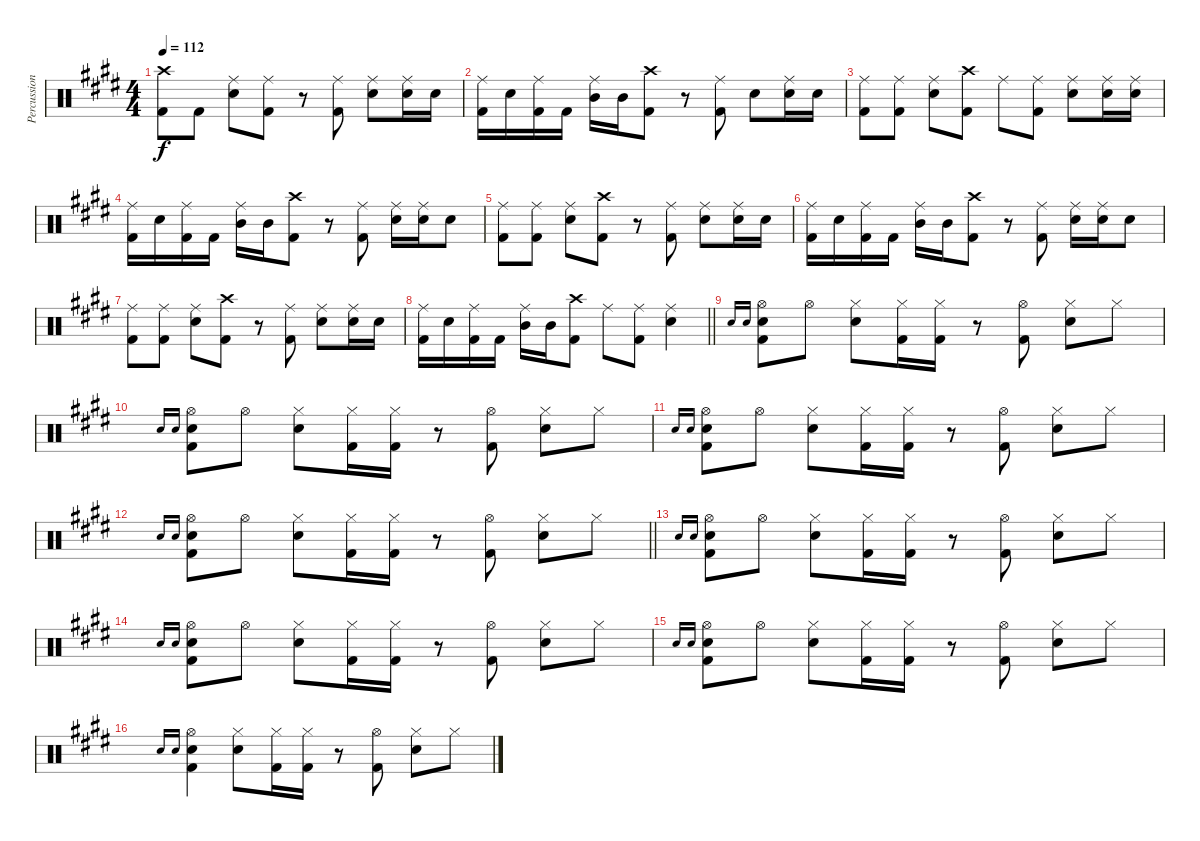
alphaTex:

\track ("Percussion" "Percussion") {instrument percussion}
\staff {score}
\articulation defaults
\ts (4 4)
\tempo 112
\clef neutral
\ks e
("Crash high (hit)" "Kick (hit) 2").8{dy f} "Kick (hit) 2".8 ("Ride (middle)" "Snare (hit) 2").8 ("Ride (middle)" "Kick (hit) 2").8 r.8 ("Ride (middle)" "Kick (hit) 2").8 ("Ride (middle)" "Snare (hit) 2").8 ("Ride (middle)" "Snare (hit) 2").16 "Snare (hit) 2".16 |
("Ride (middle)" "Kick (hit) 2").16 "Snare (hit) 2".16 ("Ride (middle)" "Kick (hit) 2").16 "Kick (hit) 2".16 ("Ride (middle)" "Mid Tom (hit)").16 "Mid Tom (hit)".16 ("Crash high (hit)" "Kick (hit) 2").8 r.8 ("Ride (middle)" "Kick (hit) 2").8 "Snare (hit) 2".8 ("Ride (middle)" "Snare (hit) 2").16 "Snare (hit) 2".16 |
("Ride (middle)" "Kick (hit) 2").8 ("Ride (middle)" "Kick (hit) 2").8 ("Ride (middle)" "Snare (hit) 2").8 ("Crash high (hit)" "Kick (hit) 2").8 "Ride (middle)".8 ("Ride (middle)" "Kick (hit) 2").8 ("Ride (middle)" "Snare (hit) 2").8 ("Ride (middle)" "Snare (hit) 2").16 ("Ride (middle)" "Snare (hit) 2").16 |
("Ride (middle)" "Kick (hit) 2").16 "Snare (hit) 2".16 ("Ride (middle)" "Kick (hit) 2").16 "Kick (hit) 2".16 ("Ride (middle)" "Mid Tom (hit)").16 "Mid Tom (hit)".16 ("Crash high (hit)" "Kick (hit) 2").8 r.8 ("Ride (middle)" "Kick (hit) 2").8 ("Ride (middle)" "Snare (hit) 2").16 ("Ride (middle)" "Snare (hit) 2").16 "Snare (hit) 2".8 |
("Ride (middle)" "Kick (hit) 2").8 ("Ride (middle)" "Kick (hit) 2").8 ("Ride (middle)" "Snare (hit) 2").8 ("Crash high (hit)" "Kick (hit) 2").8 r.8 ("Ride (middle)" "Kick (hit) 2").8 ("Ride (middle)" "Snare (hit) 2").8 ("Ride (middle)" "Snare (hit) 2").16 "Snare (hit) 2".16 |
("Ride (middle)" "Kick (hit) 2").16 "Snare (hit) 2".16 ("Ride (middle)" "Kick (hit) 2").16 "Kick (hit) 2".16 ("Ride (middle)" "Mid Tom (hit)").16 "Mid Tom (hit)".16 ("Crash high (hit)" "Kick (hit) 2").8 r.8 ("Ride (middle)" "Kick (hit) 2").8 ("Ride (middle)" "Snare (hit) 2").16 ("Ride (middle)" "Snare (hit) 2").16 "Snare (hit) 2".8 |
("Ride (middle)" "Kick (hit) 2").8 ("Ride (middle)" "Kick (hit) 2").8 ("Ride (middle)" "Snare (hit) 2").8 ("Crash high (hit)" "Kick (hit) 2").8 r.8 ("Ride (middle)" "Kick (hit) 2").8 ("Ride (middle)" "Snare (hit) 2").8 ("Ride (middle)" "Snare (hit) 2").16 "Snare (hit) 2".16 |
\barLineRight lightlight
("Ride (middle)" "Kick (hit) 2").16 "Snare (hit) 2".16 ("Ride (middle)" "Kick (hit) 2").16 "Kick (hit) 2".16 ("Ride (middle)" "Mid Tom (hit)").16 "Mid Tom (hit)".16 ("Crash high (hit)" "Kick (hit) 2").8 "Ride (middle)".8 ("Ride (middle)" "Kick (hit) 2").8 ("Ride (middle)" "Snare (hit) 2").4 |
"Snare (hit) 2".16{gr onbeat} "Snare (hit) 2".16{gr onbeat} ("Hi-Hat (open)" "Snare (hit) 2" "Kick (hit) 2").8 "Hi-Hat (open)".8 ("Hi-Hat (closed)" "Snare (hit) 2").8 ("Hi-Hat (closed)" "Kick (hit) 2").16 ("Hi-Hat (closed)" "Kick (hit) 2").16 r.8 ("Hi-Hat (open)" "Kick (hit) 2").8 ("Hi-Hat (closed)" "Snare (hit) 2").8 "Hi-Hat (closed)".8 |
"Snare (hit) 2".16{gr onbeat} "Snare (hit) 2".16{gr onbeat} ("Hi-Hat (open)" "Snare (hit) 2" "Kick (hit) 2").8 "Hi-Hat (open)".8 ("Hi-Hat (closed)" "Snare (hit) 2").8 ("Hi-Hat (closed)" "Kick (hit) 2").16 ("Hi-Hat (closed)" "Kick (hit) 2").16 r.8 ("Hi-Hat (open)" "Kick (hit) 2").8 ("Hi-Hat (closed)" "Snare (hit) 2").8 "Hi-Hat (closed)".8 |
"Snare (hit) 2".16{gr onbeat} "Snare (hit) 2".16{gr onbeat} ("Hi-Hat (open)" "Snare (hit) 2" "Kick (hit) 2").8 "Hi-Hat (open)".8 ("Hi-Hat (closed)" "Snare (hit) 2").8 ("Hi-Hat (closed)" "Kick (hit) 2").16 ("Hi-Hat (closed)" "Kick (hit) 2").16 r.8 ("Hi-Hat (open)" "Kick (hit) 2").8 ("Hi-Hat (closed)" "Snare (hit) 2").8 "Hi-Hat (closed)".8 |
\barLineRight lightlight "Snare (hit) 2".16{gr onbeat} "Snare (hit) 2".16{gr onbeat}
("Hi-Hat (open)" "Snare (hit) 2" "Kick (hit) 2").8 "Hi-Hat (open)".8 ("Hi-Hat (closed)" "Snare (hit) 2").8 ("Hi-Hat (closed)" "Kick (hit) 2").16 ("Hi-Hat (closed)" "Kick (hit) 2").16 r.8 ("Hi-Hat (open)" "Kick (hit) 2").8 ("Hi-Hat (closed)" "Snare (hit) 2").8 "Hi-Hat (closed)".8 |
"Snare (hit) 2".16{gr onbeat} "Snare (hit) 2".16{gr onbeat} ("Hi-Hat (open)" "Snare (hit) 2" "Kick (hit) 2").8 "Hi-Hat (open)".8 ("Hi-Hat (closed)" "Snare (hit) 2").8 ("Hi-Hat (closed)" "Kick (hit) 2").16 ("Hi-Hat (closed)" "Kick (hit) 2").16 r.8 ("Hi-Hat (open)" "Kick (hit) 2").8 ("Hi-Hat (closed)" "Snare (hit) 2").8 "Hi-Hat (closed)".8 |
"Snare (hit) 2".16{gr onbeat} "Snare (hit) 2".16{gr onbeat} ("Hi-Hat (open)" "Snare (hit) 2" "Kick (hit) 2").8 "Hi-Hat (open)".8 ("Hi-Hat (closed)" "Snare (hit) 2").8 ("Hi-Hat (closed)" "Kick (hit) 2").16 ("Hi-Hat (closed)" "Kick (hit) 2").16 r.8 ("Hi-Hat (open)" "Kick (hit) 2").8 ("Hi-Hat (closed)" "Snare (hit) 2").8 "Hi-Hat (closed)".8 |
"Snare (hit) 2".16{gr onbeat} "Snare (hit) 2".16{gr onbeat} ("Hi-Hat (open)" "Snare (hit) 2" "Kick (hit) 2").8 "Hi-Hat (open)".8 ("Hi-Hat (closed)" "Snare (hit) 2").8 ("Hi-Hat (closed)" "Kick (hit) 2").16 ("Hi-Hat (closed)" "Kick (hit) 2").16 r.8 ("Hi-Hat (open)" "Kick (hit) 2").8 ("Hi-Hat (closed)" "Snare (hit) 2").8 "Hi-Hat (closed)".8 |
"Snare (hit) 2".16{gr onbeat} "Snare (hit) 2".16{gr onbeat} ("Hi-Hat (open)" "Snare (hit) 2" "Kick (hit) 2").4 ("Hi-Hat (closed)" "Snare (hit) 2").8 ("Hi-Hat (closed)" "Kick (hit) 2").16 ("Hi-Hat (closed)" "Kick (hit) 2").16 r.8 ("Hi-Hat (open)" "Kick (hit) 2").8 ("Hi-Hat (closed)" "Snare (hit) 2").8 "Hi-Hat (closed)".8
